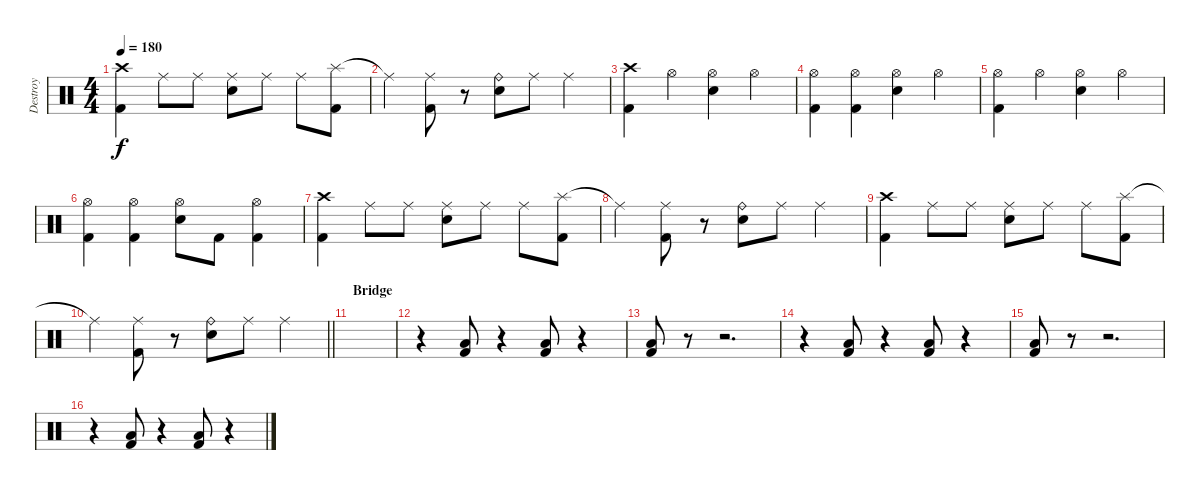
\track ("Destroy" "Destroy") {instrument percussion}
\staff {score}
\articulation defaults
\ts (4 4)
\tempo 180
\clef neutral
\ks c
("Crash high (hit)" "Kick (hit) 2").4{dy f} "Ride (middle)".8 "Ride (middle)".8 ("Ride (middle)" "Snare (hit) 2").8 "Ride (middle)".8 "Ride (middle)".8 ("Splash (hit)" "Kick (hit) 2").8 |
"Ride (middle)"{t}.4 ("Ride (middle)" "Kick (hit) 2").8 r.8 ("Ride (bell)" "Snare (hit) 2").8 "Ride (middle)".8 "Ride (middle)".4 |
("Crash high (hit)" "Kick (hit) 2").4 "Hi-Hat (open)".4 ("Hi-Hat (open)" "Snare (hit) 2").4 "Hi-Hat (open)".4 |
("Hi-Hat (open)" "Kick (hit) 2").4 ("Hi-Hat (open)" "Kick (hit) 2").4 ("Hi-Hat (open)" "Snare (hit) 2").4 "Hi-Hat (open)".4 |
("Hi-Hat (open)" "Kick (hit) 2").4 "Hi-Hat (open)".4 ("Hi-Hat (open)" "Snare (hit) 2").4 "Hi-Hat (open)".4 |
("Hi-Hat (open)" "Kick (hit) 2").4 ("Hi-Hat (open)" "Kick (hit) 2").4 ("Hi-Hat (open)" "Snare (hit) 2").8 "Kick (hit) 2".8 ("Hi-Hat (open)" "Kick (hit) 2").4 |
("Crash high (hit)" "Kick (hit) 2").4 "Ride (middle)".8 "Ride (middle)".8 ("Ride (middle)" "Snare (hit) 2").8 "Ride (middle)".8 "Ride (middle)".8 ("Splash (hit)" "Kick (hit) 2").8 |
"Ride (middle)"{t}.4 ("Ride (middle)" "Kick (hit) 2").8 r.8 ("Ride (bell)" "Snare (hit) 2").8 "Ride (middle)".8 "Ride (middle)".4 |
("Crash high (hit)" "Kick (hit) 2").4 "Ride (middle)".8 "Ride (middle)".8 ("Ride (middle)" "Snare (hit) 2").8 "Ride (middle)".8 "Ride (middle)".8 ("Splash (hit)" "Kick (hit) 2").8 |
\barLineRight lightlight "Ride (middle)"{t}.4
("Ride (middle)" "Kick (hit) 2").8 r.8 ("Ride (bell)" "Snare (hit) 2").8 "Ride (middle)".8 "Ride (middle)".4 |
\section ("" "Bridge")
|
r.4 ("Low Floor Tom (hit)" "Kick (hit) 2").8 r.4 ("Low Floor Tom (hit)" "Kick (hit) 2").8 r.4 |
("Low Floor Tom (hit)" "Kick (hit) 2").8 r.8 r.2{d} |
r.4 ("Low Floor Tom (hit)" "Kick (hit) 2").8 r.4 ("Low Floor Tom (hit)" "Kick (hit) 2").8 r.4 |
("Low Floor Tom (hit)" "Kick (hit) 2").8 r.8 r.2{d} |
r.4 ("Low Floor Tom (hit)" "Kick (hit) 2").8 r.4 ("Low Floor Tom (hit)" "Kick (hit) 2").8 r.4
